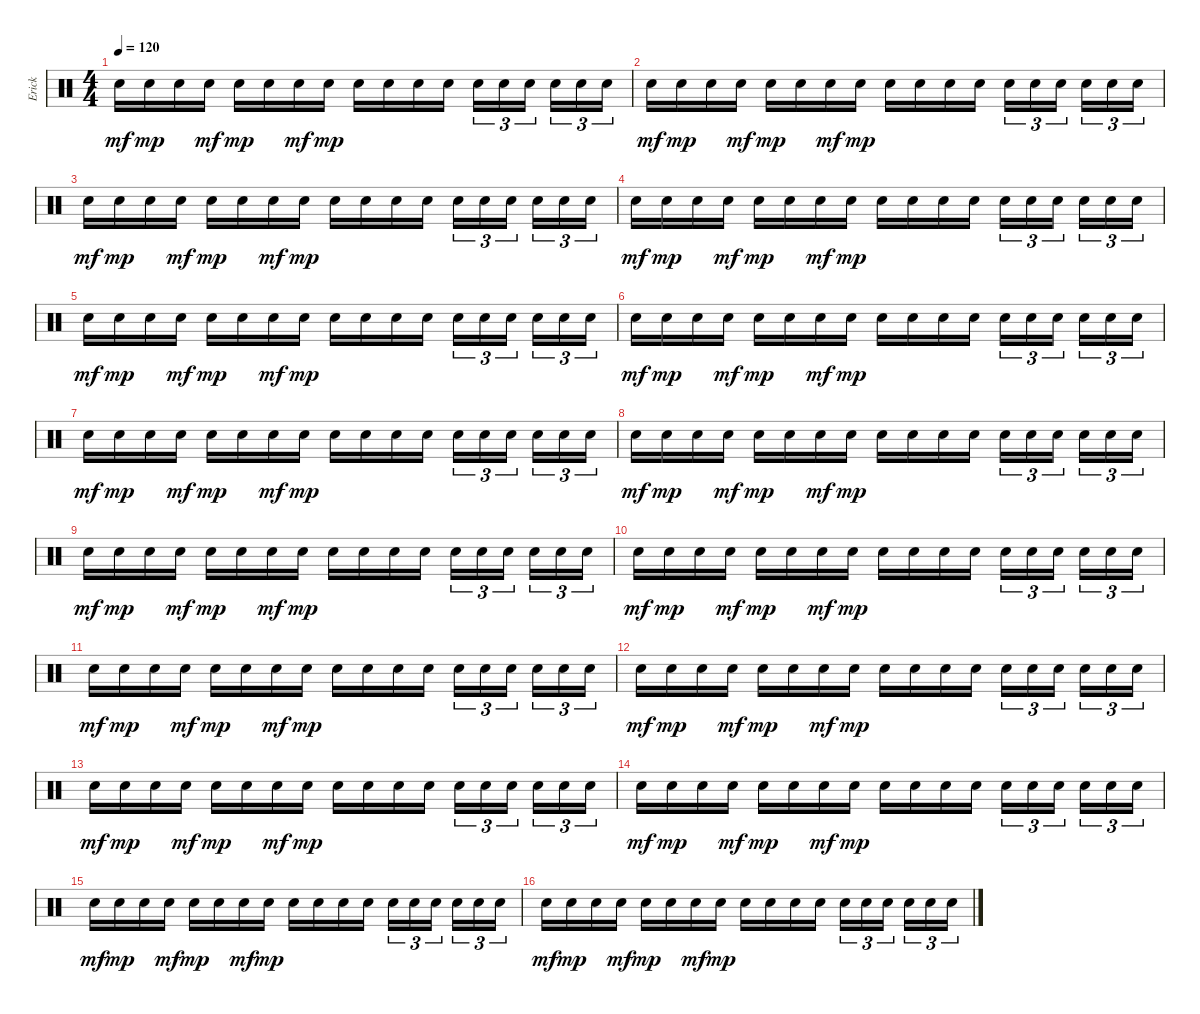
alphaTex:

\track ("Erick" "Erick") {instrument percussion}
\staff {score}
\articulation defaults
\ts (4 4)
\tempo 120
\clef neutral
\ks c "Snare (hit) 2".16{dy mf} "Snare (hit) 2".16{dy mp} "Snare (hit) 2".16 "Electric Snare (hit)".16{dy mf} "Snare (hit) 2".16{dy mp} "Snare (hit) 2".16 "Electric Snare (hit)".16{dy mf} "Snare (hit) 2".16{dy mp} "Snare (hit) 2".16 "Snare (hit) 2".16 "Snare (hit) 2".16 "Snare (hit) 2".16 "Snare (hit) 2".16{tu (3 2)} "Snare (hit) 2".16{tu (3 2)} "Snare (hit) 2".16{tu (3 2)} "Snare (hit) 2".16{tu (3 2)} "Snare (hit) 2".16{tu (3 2)} "Snare (hit) 2".16{tu (3 2)}
|
"Snare (hit) 2".16{dy mf} "Snare (hit) 2".16{dy mp} "Snare (hit) 2".16 "Electric Snare (hit)".16{dy mf} "Snare (hit) 2".16{dy mp} "Snare (hit) 2".16 "Electric Snare (hit)".16{dy mf} "Snare (hit) 2".16{dy mp} "Snare (hit) 2".16 "Snare (hit) 2".16 "Snare (hit) 2".16 "Snare (hit) 2".16 "Snare (hit) 2".16{tu (3 2)} "Snare (hit) 2".16{tu (3 2)} "Snare (hit) 2".16{tu (3 2)} "Snare (hit) 2".16{tu (3 2)} "Snare (hit) 2".16{tu (3 2)} "Snare (hit) 2".16{tu (3 2)} |
"Snare (hit) 2".16{dy mf} "Snare (hit) 2".16{dy mp} "Snare (hit) 2".16 "Electric Snare (hit)".16{dy mf} "Snare (hit) 2".16{dy mp} "Snare (hit) 2".16 "Electric Snare (hit)".16{dy mf} "Snare (hit) 2".16{dy mp} "Snare (hit) 2".16 "Snare (hit) 2".16 "Snare (hit) 2".16 "Snare (hit) 2".16 "Snare (hit) 2".16{tu (3 2)} "Snare (hit) 2".16{tu (3 2)} "Snare (hit) 2".16{tu (3 2)} "Snare (hit) 2".16{tu (3 2)} "Snare (hit) 2".16{tu (3 2)} "Snare (hit) 2".16{tu (3 2)} |
"Snare (hit) 2".16{dy mf} "Snare (hit) 2".16{dy mp} "Snare (hit) 2".16 "Electric Snare (hit)".16{dy mf} "Snare (hit) 2".16{dy mp} "Snare (hit) 2".16 "Electric Snare (hit)".16{dy mf} "Snare (hit) 2".16{dy mp} "Snare (hit) 2".16 "Snare (hit) 2".16 "Snare (hit) 2".16 "Snare (hit) 2".16 "Snare (hit) 2".16{tu (3 2)} "Snare (hit) 2".16{tu (3 2)} "Snare (hit) 2".16{tu (3 2)} "Snare (hit) 2".16{tu (3 2)} "Snare (hit) 2".16{tu (3 2)} "Snare (hit) 2".16{tu (3 2)} |
"Snare (hit) 2".16{dy mf} "Snare (hit) 2".16{dy mp} "Snare (hit) 2".16 "Electric Snare (hit)".16{dy mf} "Snare (hit) 2".16{dy mp} "Snare (hit) 2".16 "Electric Snare (hit)".16{dy mf} "Snare (hit) 2".16{dy mp} "Snare (hit) 2".16 "Snare (hit) 2".16 "Snare (hit) 2".16 "Snare (hit) 2".16 "Snare (hit) 2".16{tu (3 2)} "Snare (hit) 2".16{tu (3 2)} "Snare (hit) 2".16{tu (3 2)} "Snare (hit) 2".16{tu (3 2)} "Snare (hit) 2".16{tu (3 2)} "Snare (hit) 2".16{tu (3 2)} |
"Snare (hit) 2".16{dy mf} "Snare (hit) 2".16{dy mp} "Snare (hit) 2".16 "Electric Snare (hit)".16{dy mf} "Snare (hit) 2".16{dy mp} "Snare (hit) 2".16 "Electric Snare (hit)".16{dy mf} "Snare (hit) 2".16{dy mp} "Snare (hit) 2".16 "Snare (hit) 2".16 "Snare (hit) 2".16 "Snare (hit) 2".16 "Snare (hit) 2".16{tu (3 2)} "Snare (hit) 2".16{tu (3 2)} "Snare (hit) 2".16{tu (3 2)} "Snare (hit) 2".16{tu (3 2)} "Snare (hit) 2".16{tu (3 2)} "Snare (hit) 2".16{tu (3 2)} |
"Snare (hit) 2".16{dy mf} "Snare (hit) 2".16{dy mp} "Snare (hit) 2".16 "Electric Snare (hit)".16{dy mf} "Snare (hit) 2".16{dy mp} "Snare (hit) 2".16 "Electric Snare (hit)".16{dy mf} "Snare (hit) 2".16{dy mp} "Snare (hit) 2".16 "Snare (hit) 2".16 "Snare (hit) 2".16 "Snare (hit) 2".16 "Snare (hit) 2".16{tu (3 2)} "Snare (hit) 2".16{tu (3 2)} "Snare (hit) 2".16{tu (3 2)} "Snare (hit) 2".16{tu (3 2)} "Snare (hit) 2".16{tu (3 2)} "Snare (hit) 2".16{tu (3 2)} |
"Snare (hit) 2".16{dy mf} "Snare (hit) 2".16{dy mp} "Snare (hit) 2".16 "Electric Snare (hit)".16{dy mf} "Snare (hit) 2".16{dy mp} "Snare (hit) 2".16 "Electric Snare (hit)".16{dy mf} "Snare (hit) 2".16{dy mp} "Snare (hit) 2".16 "Snare (hit) 2".16 "Snare (hit) 2".16 "Snare (hit) 2".16 "Snare (hit) 2".16{tu (3 2)} "Snare (hit) 2".16{tu (3 2)} "Snare (hit) 2".16{tu (3 2)} "Snare (hit) 2".16{tu (3 2)} "Snare (hit) 2".16{tu (3 2)} "Snare (hit) 2".16{tu (3 2)} |
"Snare (hit) 2".16{dy mf} "Snare (hit) 2".16{dy mp} "Snare (hit) 2".16 "Electric Snare (hit)".16{dy mf} "Snare (hit) 2".16{dy mp} "Snare (hit) 2".16 "Electric Snare (hit)".16{dy mf} "Snare (hit) 2".16{dy mp} "Snare (hit) 2".16 "Snare (hit) 2".16 "Snare (hit) 2".16 "Snare (hit) 2".16 "Snare (hit) 2".16{tu (3 2)} "Snare (hit) 2".16{tu (3 2)} "Snare (hit) 2".16{tu (3 2)} "Snare (hit) 2".16{tu (3 2)} "Snare (hit) 2".16{tu (3 2)} "Snare (hit) 2".16{tu (3 2)} |
"Snare (hit) 2".16{dy mf} "Snare (hit) 2".16{dy mp} "Snare (hit) 2".16 "Electric Snare (hit)".16{dy mf} "Snare (hit) 2".16{dy mp} "Snare (hit) 2".16 "Electric Snare (hit)".16{dy mf} "Snare (hit) 2".16{dy mp} "Snare (hit) 2".16 "Snare (hit) 2".16 "Snare (hit) 2".16 "Snare (hit) 2".16 "Snare (hit) 2".16{tu (3 2)} "Snare (hit) 2".16{tu (3 2)} "Snare (hit) 2".16{tu (3 2)} "Snare (hit) 2".16{tu (3 2)} "Snare (hit) 2".16{tu (3 2)} "Snare (hit) 2".16{tu (3 2)} |
"Snare (hit) 2".16{dy mf} "Snare (hit) 2".16{dy mp} "Snare (hit) 2".16 "Electric Snare (hit)".16{dy mf} "Snare (hit) 2".16{dy mp} "Snare (hit) 2".16 "Electric Snare (hit)".16{dy mf} "Snare (hit) 2".16{dy mp} "Snare (hit) 2".16 "Snare (hit) 2".16 "Snare (hit) 2".16 "Snare (hit) 2".16 "Snare (hit) 2".16{tu (3 2)} "Snare (hit) 2".16{tu (3 2)} "Snare (hit) 2".16{tu (3 2)} "Snare (hit) 2".16{tu (3 2)} "Snare (hit) 2".16{tu (3 2)} "Snare (hit) 2".16{tu (3 2)} |
"Snare (hit) 2".16{dy mf} "Snare (hit) 2".16{dy mp} "Snare (hit) 2".16 "Electric Snare (hit)".16{dy mf} "Snare (hit) 2".16{dy mp} "Snare (hit) 2".16 "Electric Snare (hit)".16{dy mf} "Snare (hit) 2".16{dy mp} "Snare (hit) 2".16 "Snare (hit) 2".16 "Snare (hit) 2".16 "Snare (hit) 2".16 "Snare (hit) 2".16{tu (3 2)} "Snare (hit) 2".16{tu (3 2)} "Snare (hit) 2".16{tu (3 2)} "Snare (hit) 2".16{tu (3 2)} "Snare (hit) 2".16{tu (3 2)} "Snare (hit) 2".16{tu (3 2)} |
"Snare (hit) 2".16{dy mf} "Snare (hit) 2".16{dy mp} "Snare (hit) 2".16 "Electric Snare (hit)".16{dy mf} "Snare (hit) 2".16{dy mp} "Snare (hit) 2".16 "Electric Snare (hit)".16{dy mf} "Snare (hit) 2".16{dy mp} "Snare (hit) 2".16 "Snare (hit) 2".16 "Snare (hit) 2".16 "Snare (hit) 2".16 "Snare (hit) 2".16{tu (3 2)} "Snare (hit) 2".16{tu (3 2)} "Snare (hit) 2".16{tu (3 2)} "Snare (hit) 2".16{tu (3 2)} "Snare (hit) 2".16{tu (3 2)} "Snare (hit) 2".16{tu (3 2)} |
"Snare (hit) 2".16{dy mf} "Snare (hit) 2".16{dy mp} "Snare (hit) 2".16 "Electric Snare (hit)".16{dy mf} "Snare (hit) 2".16{dy mp} "Snare (hit) 2".16 "Electric Snare (hit)".16{dy mf} "Snare (hit) 2".16{dy mp} "Snare (hit) 2".16 "Snare (hit) 2".16 "Snare (hit) 2".16 "Snare (hit) 2".16 "Snare (hit) 2".16{tu (3 2)} "Snare (hit) 2".16{tu (3 2)} "Snare (hit) 2".16{tu (3 2)} "Snare (hit) 2".16{tu (3 2)} "Snare (hit) 2".16{tu (3 2)} "Snare (hit) 2".16{tu (3 2)} |
"Snare (hit) 2".16{dy mf} "Snare (hit) 2".16{dy mp} "Snare (hit) 2".16 "Electric Snare (hit)".16{dy mf} "Snare (hit) 2".16{dy mp} "Snare (hit) 2".16 "Electric Snare (hit)".16{dy mf} "Snare (hit) 2".16{dy mp} "Snare (hit) 2".16 "Snare (hit) 2".16 "Snare (hit) 2".16 "Snare (hit) 2".16 "Snare (hit) 2".16{tu (3 2)} "Snare (hit) 2".16{tu (3 2)} "Snare (hit) 2".16{tu (3 2)} "Snare (hit) 2".16{tu (3 2)} "Snare (hit) 2".16{tu (3 2)} "Snare (hit) 2".16{tu (3 2)} |
"Snare (hit) 2".16{dy mf} "Snare (hit) 2".16{dy mp} "Snare (hit) 2".16 "Electric Snare (hit)".16{dy mf} "Snare (hit) 2".16{dy mp} "Snare (hit) 2".16 "Electric Snare (hit)".16{dy mf} "Snare (hit) 2".16{dy mp} "Snare (hit) 2".16 "Snare (hit) 2".16 "Snare (hit) 2".16 "Snare (hit) 2".16 "Snare (hit) 2".16{tu (3 2)} "Snare (hit) 2".16{tu (3 2)} "Snare (hit) 2".16{tu (3 2)} "Snare (hit) 2".16{tu (3 2)} "Snare (hit) 2".16{tu (3 2)} "Snare (hit) 2".16{tu (3 2)}
